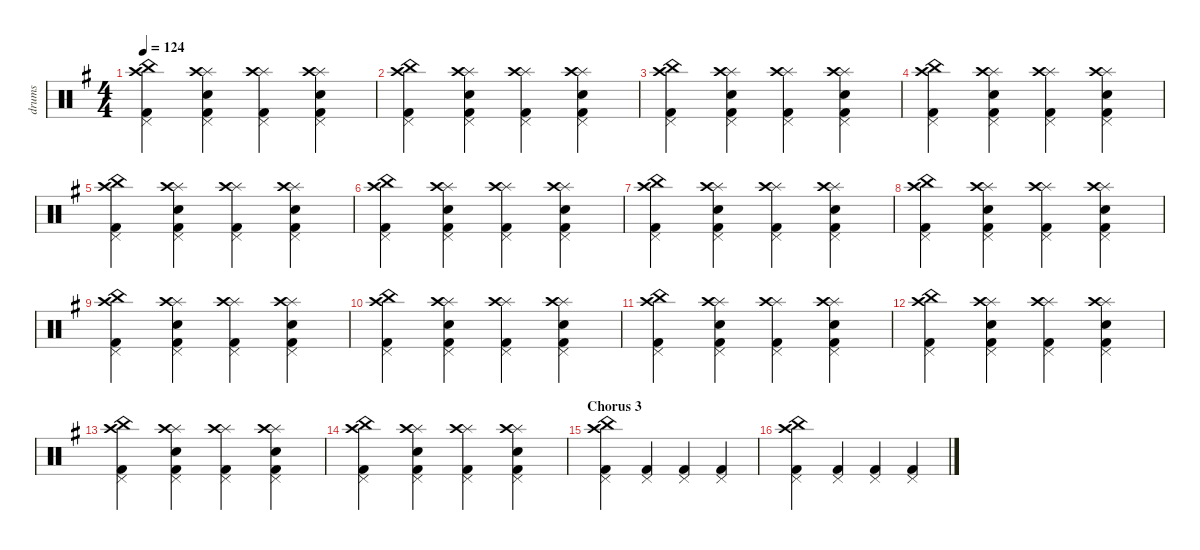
\defaultSystemsLayout 4
\hideDynamics
\bracketExtendMode nobrackets
\otherSystemsTrackNameOrientation horizontal
\track ("drums" "drums") {instrument percussion}
\staff {score}
\articulation defaults
\ts (4 4)
\tempo 124
\clef neutral
\scale
1.07945
\ks eminor
("Kick (hit) 2"{acc forcenatural} "China (hit)"{acc forcenatural} "Crash high (hit)"{acc forcenatural} "Pedal Hi-Hat (hit)"{acc forcenatural}).4{dy mf beam Down} ("Kick (hit) 2"{acc forcenatural} "Pedal Hi-Hat (hit)"{acc forcenatural} "Snare (hit) 2"{acc forcenatural} "Splash (hit)"{acc forcenatural} "Crash high (hit)"{acc forcenatural}).4{beam Down} ("Kick (hit) 2"{acc forcenatural} "Pedal Hi-Hat (hit)"{acc forcenatural} "Splash (hit)"{acc forcenatural} "Crash high (hit)"{acc forcenatural}).4{beam Down} ("Kick (hit) 2"{acc forcenatural} "Pedal Hi-Hat (hit)"{acc forcenatural} "Snare (hit) 2"{acc forcenatural} "Splash (hit)"{acc forcenatural} "Crash high (hit)"{acc forcenatural}).4{beam Down} |
\scale
0.973518 ("Kick (hit) 2"{acc forcenatural} "China (hit)"{acc forcenatural} "Crash high (hit)"{acc forcenatural} "Pedal Hi-Hat (hit)"{acc forcenatural}).4{beam Down} ("Kick (hit) 2"{acc forcenatural} "Pedal Hi-Hat (hit)"{acc forcenatural} "Snare (hit) 2"{acc forcenatural} "Splash (hit)"{acc forcenatural} "Crash high (hit)"{acc forcenatural}).4{beam Down} ("Kick (hit) 2"{acc forcenatural} "Pedal Hi-Hat (hit)"{acc forcenatural} "Splash (hit)"{acc forcenatural} "Crash high (hit)"{acc forcenatural}).4{beam Down} ("Kick (hit) 2"{acc forcenatural} "Pedal Hi-Hat (hit)"{acc forcenatural} "Snare (hit) 2"{acc forcenatural} "Splash (hit)"{acc forcenatural} "Crash high (hit)"{acc forcenatural}).4{beam Down} |
\scale
0.973518 ("Kick (hit) 2"{acc forcenatural} "China (hit)"{acc forcenatural} "Crash high (hit)"{acc forcenatural} "Pedal Hi-Hat (hit)"{acc forcenatural}).4{beam Down} ("Kick (hit) 2"{acc forcenatural} "Pedal Hi-Hat (hit)"{acc forcenatural} "Snare (hit) 2"{acc forcenatural} "Splash (hit)"{acc forcenatural} "Crash high (hit)"{acc forcenatural}).4{beam Down} ("Kick (hit) 2"{acc forcenatural} "Pedal Hi-Hat (hit)"{acc forcenatural} "Splash (hit)"{acc forcenatural} "Crash high (hit)"{acc forcenatural}).4{beam Down} ("Kick (hit) 2"{acc forcenatural} "Pedal Hi-Hat (hit)"{acc forcenatural} "Snare (hit) 2"{acc forcenatural} "Splash (hit)"{acc forcenatural} "Crash high (hit)"{acc forcenatural}).4{beam Down} |
\scale
0.973518 ("Kick (hit) 2"{acc forcenatural} "China (hit)"{acc forcenatural} "Crash high (hit)"{acc forcenatural} "Pedal Hi-Hat (hit)"{acc forcenatural}).4{beam Down} ("Kick (hit) 2"{acc forcenatural} "Pedal Hi-Hat (hit)"{acc forcenatural} "Snare (hit) 2"{acc forcenatural} "Splash (hit)"{acc forcenatural} "Crash high (hit)"{acc forcenatural}).4{beam Down} ("Kick (hit) 2"{acc forcenatural} "Pedal Hi-Hat (hit)"{acc forcenatural} "Splash (hit)"{acc forcenatural} "Crash high (hit)"{acc forcenatural}).4{beam Down} ("Kick (hit) 2"{acc forcenatural} "Pedal Hi-Hat (hit)"{acc forcenatural} "Snare (hit) 2"{acc forcenatural} "Splash (hit)"{acc forcenatural} "Crash high (hit)"{acc forcenatural}).4{beam Down} |
\scale
1.07945 ("Kick (hit) 2"{acc forcenatural} "China (hit)"{acc forcenatural} "Crash high (hit)"{acc forcenatural} "Pedal Hi-Hat (hit)"{acc forcenatural}).4{beam Down} ("Kick (hit) 2"{acc forcenatural} "Pedal Hi-Hat (hit)"{acc forcenatural} "Snare (hit) 2"{acc forcenatural} "Splash (hit)"{acc forcenatural} "Crash high (hit)"{acc forcenatural}).4{beam Down} ("Kick (hit) 2"{acc forcenatural} "Pedal Hi-Hat (hit)"{acc forcenatural} "Splash (hit)"{acc forcenatural} "Crash high (hit)"{acc forcenatural}).4{beam Down} ("Kick (hit) 2"{acc forcenatural} "Pedal Hi-Hat (hit)"{acc forcenatural} "Snare (hit) 2"{acc forcenatural} "Splash (hit)"{acc forcenatural} "Crash high (hit)"{acc forcenatural}).4{beam Down} |
\scale
0.973518 ("Kick (hit) 2"{acc forcenatural} "China (hit)"{acc forcenatural} "Crash high (hit)"{acc forcenatural} "Pedal Hi-Hat (hit)"{acc forcenatural}).4{beam Down} ("Kick (hit) 2"{acc forcenatural} "Pedal Hi-Hat (hit)"{acc forcenatural} "Snare (hit) 2"{acc forcenatural} "Splash (hit)"{acc forcenatural} "Crash high (hit)"{acc forcenatural}).4{beam Down} ("Kick (hit) 2"{acc forcenatural} "Pedal Hi-Hat (hit)"{acc forcenatural} "Splash (hit)"{acc forcenatural} "Crash high (hit)"{acc forcenatural}).4{beam Down} ("Kick (hit) 2"{acc forcenatural} "Pedal Hi-Hat (hit)"{acc forcenatural} "Snare (hit) 2"{acc forcenatural} "Splash (hit)"{acc forcenatural} "Crash high (hit)"{acc forcenatural}).4{beam Down} |
\scale
0.973518 ("Kick (hit) 2"{acc forcenatural} "China (hit)"{acc forcenatural} "Crash high (hit)"{acc forcenatural} "Pedal Hi-Hat (hit)"{acc forcenatural}).4{beam Down} ("Kick (hit) 2"{acc forcenatural} "Pedal Hi-Hat (hit)"{acc forcenatural} "Snare (hit) 2"{acc forcenatural} "Splash (hit)"{acc forcenatural} "Crash high (hit)"{acc forcenatural}).4{beam Down} ("Kick (hit) 2"{acc forcenatural} "Pedal Hi-Hat (hit)"{acc forcenatural} "Splash (hit)"{acc forcenatural} "Crash high (hit)"{acc forcenatural}).4{beam Down} ("Kick (hit) 2"{acc forcenatural} "Pedal Hi-Hat (hit)"{acc forcenatural} "Snare (hit) 2"{acc forcenatural} "Splash (hit)"{acc forcenatural} "Crash high (hit)"{acc forcenatural}).4{beam Down} |
\scale
0.973518 ("Kick (hit) 2"{acc forcenatural} "China (hit)"{acc forcenatural} "Crash high (hit)"{acc forcenatural} "Pedal Hi-Hat (hit)"{acc forcenatural}).4{beam Down} ("Kick (hit) 2"{acc forcenatural} "Pedal Hi-Hat (hit)"{acc forcenatural} "Snare (hit) 2"{acc forcenatural} "Splash (hit)"{acc forcenatural} "Crash high (hit)"{acc forcenatural}).4{beam Down} ("Kick (hit) 2"{acc forcenatural} "Pedal Hi-Hat (hit)"{acc forcenatural} "Splash (hit)"{acc forcenatural} "Crash high (hit)"{acc forcenatural}).4{beam Down} ("Kick (hit) 2"{acc forcenatural} "Pedal Hi-Hat (hit)"{acc forcenatural} "Snare (hit) 2"{acc forcenatural} "Splash (hit)"{acc forcenatural} "Crash high (hit)"{acc forcenatural}).4{beam Down} |
\scale
1.07945 ("Kick (hit) 2"{acc forcenatural} "China (hit)"{acc forcenatural} "Crash high (hit)"{acc forcenatural} "Pedal Hi-Hat (hit)"{acc forcenatural}).4{beam Down} ("Kick (hit) 2"{acc forcenatural} "Pedal Hi-Hat (hit)"{acc forcenatural} "Snare (hit) 2"{acc forcenatural} "Splash (hit)"{acc forcenatural} "Crash high (hit)"{acc forcenatural}).4{beam Down} ("Kick (hit) 2"{acc forcenatural} "Pedal Hi-Hat (hit)"{acc forcenatural} "Splash (hit)"{acc forcenatural} "Crash high (hit)"{acc forcenatural}).4{beam Down} ("Kick (hit) 2"{acc forcenatural} "Pedal Hi-Hat (hit)"{acc forcenatural} "Snare (hit) 2"{acc forcenatural} "Splash (hit)"{acc forcenatural} "Crash high (hit)"{acc forcenatural}).4{beam Down} |
\scale
0.973518 ("Kick (hit) 2"{acc forcenatural} "China (hit)"{acc forcenatural} "Crash high (hit)"{acc forcenatural} "Pedal Hi-Hat (hit)"{acc forcenatural}).4{beam Down} ("Kick (hit) 2"{acc forcenatural} "Pedal Hi-Hat (hit)"{acc forcenatural} "Snare (hit) 2"{acc forcenatural} "Splash (hit)"{acc forcenatural} "Crash high (hit)"{acc forcenatural}).4{beam Down} ("Kick (hit) 2"{acc forcenatural} "Pedal Hi-Hat (hit)"{acc forcenatural} "Splash (hit)"{acc forcenatural} "Crash high (hit)"{acc forcenatural}).4{beam Down} ("Kick (hit) 2"{acc forcenatural} "Pedal Hi-Hat (hit)"{acc forcenatural} "Snare (hit) 2"{acc forcenatural} "Splash (hit)"{acc forcenatural} "Crash high (hit)"{acc forcenatural}).4{beam Down} |
\scale
0.973518 ("Kick (hit) 2"{acc forcenatural} "China (hit)"{acc forcenatural} "Crash high (hit)"{acc forcenatural} "Pedal Hi-Hat (hit)"{acc forcenatural}).4{beam Down} ("Kick (hit) 2"{acc forcenatural} "Pedal Hi-Hat (hit)"{acc forcenatural} "Snare (hit) 2"{acc forcenatural} "Splash (hit)"{acc forcenatural} "Crash high (hit)"{acc forcenatural}).4{beam Down} ("Kick (hit) 2"{acc forcenatural} "Pedal Hi-Hat (hit)"{acc forcenatural} "Splash (hit)"{acc forcenatural} "Crash high (hit)"{acc forcenatural}).4{beam Down} ("Kick (hit) 2"{acc forcenatural} "Pedal Hi-Hat (hit)"{acc forcenatural} "Snare (hit) 2"{acc forcenatural} "Splash (hit)"{acc forcenatural} "Crash high (hit)"{acc forcenatural}).4{beam Down} |
\scale
0.973518 ("Kick (hit) 2"{acc forcenatural} "China (hit)"{acc forcenatural} "Crash high (hit)"{acc forcenatural} "Pedal Hi-Hat (hit)"{acc forcenatural}).4{beam Down} ("Kick (hit) 2"{acc forcenatural} "Pedal Hi-Hat (hit)"{acc forcenatural} "Snare (hit) 2"{acc forcenatural} "Splash (hit)"{acc forcenatural} "Crash high (hit)"{acc forcenatural}).4{beam Down} ("Kick (hit) 2"{acc forcenatural} "Pedal Hi-Hat (hit)"{acc forcenatural} "Splash (hit)"{acc forcenatural} "Crash high (hit)"{acc forcenatural}).4{beam Down} ("Kick (hit) 2"{acc forcenatural} "Pedal Hi-Hat (hit)"{acc forcenatural} "Snare (hit) 2"{acc forcenatural} "Splash (hit)"{acc forcenatural} "Crash high (hit)"{acc forcenatural}).4{beam Down} |
\scale
1.07945 ("Kick (hit) 2"{acc forcenatural} "China (hit)"{acc forcenatural} "Crash high (hit)"{acc forcenatural} "Pedal Hi-Hat (hit)"{acc forcenatural}).4{beam Down} ("Kick (hit) 2"{acc forcenatural} "Pedal Hi-Hat (hit)"{acc forcenatural} "Snare (hit) 2"{acc forcenatural} "Splash (hit)"{acc forcenatural} "Crash high (hit)"{acc forcenatural}).4{beam Down} ("Kick (hit) 2"{acc forcenatural} "Pedal Hi-Hat (hit)"{acc forcenatural} "Splash (hit)"{acc forcenatural} "Crash high (hit)"{acc forcenatural}).4{beam Down} ("Kick (hit) 2"{acc forcenatural} "Pedal Hi-Hat (hit)"{acc forcenatural} "Snare (hit) 2"{acc forcenatural} "Splash (hit)"{acc forcenatural} "Crash high (hit)"{acc forcenatural}).4{beam Down} |
\scale
0.973518 ("Kick (hit) 2"{acc forcenatural} "China (hit)"{acc forcenatural} "Crash high (hit)"{acc forcenatural} "Pedal Hi-Hat (hit)"{acc forcenatural}).4{beam Down} ("Kick (hit) 2"{acc forcenatural} "Pedal Hi-Hat (hit)"{acc forcenatural} "Snare (hit) 2"{acc forcenatural} "Splash (hit)"{acc forcenatural} "Crash high (hit)"{acc forcenatural}).4{beam Down} ("Kick (hit) 2"{acc forcenatural} "Pedal Hi-Hat (hit)"{acc forcenatural} "Splash (hit)"{acc forcenatural} "Crash high (hit)"{acc forcenatural}).4{beam Down} ("Kick (hit) 2"{acc forcenatural} "Pedal Hi-Hat (hit)"{acc forcenatural} "Snare (hit) 2"{acc forcenatural} "Splash (hit)"{acc forcenatural} "Crash high (hit)"{acc forcenatural}).4{beam Down} |
\section ("" "Chorus 3")
\scale
0.973518 ("Kick (hit) 2"{acc forcenatural} "China (hit)"{acc forcenatural} "Crash high (hit)"{acc forcenatural} "Pedal Hi-Hat (hit)"{acc forcenatural}).4{beam Down} ("Kick (hit) 2"{acc forcenatural} "Pedal Hi-Hat (hit)"{acc forcenatural}).4{beam Up} ("Kick (hit) 2"{acc forcenatural} "Pedal Hi-Hat (hit)"{acc forcenatural}).4{beam Up} ("Kick (hit) 2"{acc forcenatural} "Pedal Hi-Hat (hit)"{acc forcenatural}).4{beam Up} |
\scale
0.973518 ("Kick (hit) 2"{acc forcenatural} "China (hit)"{acc forcenatural} "Crash high (hit)"{acc forcenatural} "Pedal Hi-Hat (hit)"{acc forcenatural}).4{beam Down} ("Kick (hit) 2"{acc forcenatural} "Pedal Hi-Hat (hit)"{acc forcenatural}).4{beam Up} ("Kick (hit) 2"{acc forcenatural} "Pedal Hi-Hat (hit)"{acc forcenatural}).4{beam Up} ("Kick (hit) 2"{acc forcenatural} "Pedal Hi-Hat (hit)"{acc forcenatural}).4{beam Up}
